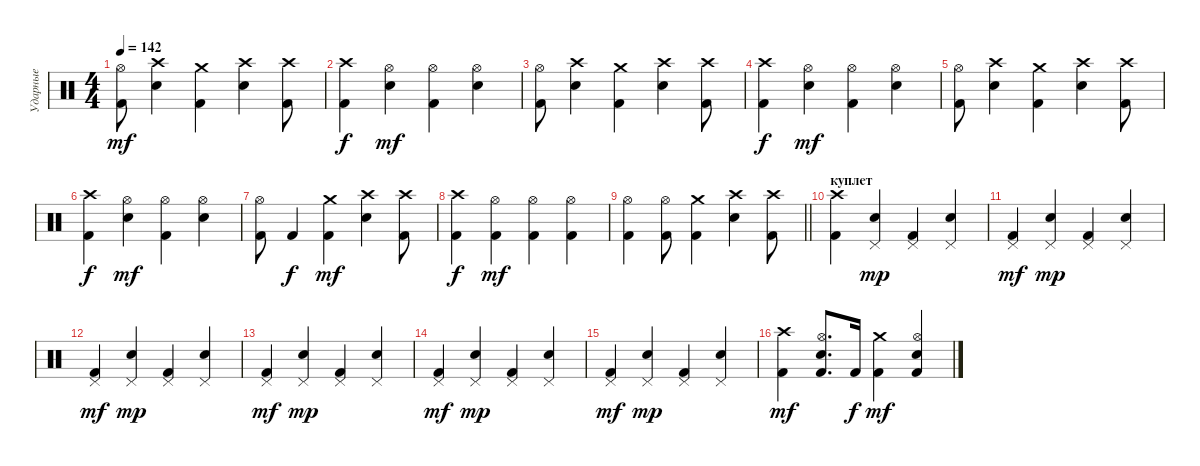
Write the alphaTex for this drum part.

\track ("Ударные" "Ударные") {instrument percussion}
\staff {score}
\articulation defaults
\ts (4 4)
\tempo 142
\clef neutral
\ks c
("Kick (hit) 2" "Hi-Hat (open)").8{dy mf} ("Electric Snare (hit)" "Crash high (hit)").4 ("Kick (hit) 2" "Crash medium (hit)").4 ("Electric Snare (hit)" "Crash high (hit)").4 ("Kick (hit) 2" "Crash high (hit)").8 |
("Kick (hit) 2" "Crash high (hit)").4{dy f} ("Electric Snare (hit)" "Hi-Hat (open)").4{dy mf} ("Kick (hit) 2" "Hi-Hat (open)").4 ("Electric Snare (hit)" "Hi-Hat (open)").4 |
("Kick (hit) 2" "Hi-Hat (open)").8 ("Electric Snare (hit)" "Crash high (hit)").4 ("Kick (hit) 2" "Crash medium (hit)").4 ("Electric Snare (hit)" "Crash high (hit)").4 ("Kick (hit) 2" "Crash high (hit)").8 |
("Kick (hit) 2" "Crash high (hit)").4{dy f} ("Electric Snare (hit)" "Hi-Hat (open)").4{dy mf} ("Kick (hit) 2" "Hi-Hat (open)").4 ("Electric Snare (hit)" "Hi-Hat (open)").4 |
("Kick (hit) 2" "Hi-Hat (open)").8 ("Electric Snare (hit)" "Crash high (hit)").4 ("Kick (hit) 2" "Crash medium (hit)").4 ("Electric Snare (hit)" "Crash high (hit)").4 ("Kick (hit) 2" "Crash high (hit)").8 |
("Kick (hit) 2" "Crash high (hit)").4{dy f} ("Electric Snare (hit)" "Hi-Hat (open)").4{dy mf} ("Kick (hit) 2" "Hi-Hat (open)").4 ("Electric Snare (hit)" "Hi-Hat (open)").4 |
("Kick (hit) 2" "Hi-Hat (open)").8 "Kick (hit) 2".4{dy f} ("Kick (hit) 2" "Crash medium (hit)").4{dy mf} ("Electric Snare (hit)" "Crash high (hit)").4 ("Kick (hit) 2" "Crash high (hit)").8 |
("Kick (hit) 2" "Crash high (hit)").4{dy f} ("Kick (hit) 2" "Hi-Hat (open)").4{dy mf} ("Kick (hit) 2" "Hi-Hat (open)").4 ("Kick (hit) 2" "Hi-Hat (open)").4 |
\barLineRight lightlight
("Kick (hit) 2" "Hi-Hat (open)").4 ("Kick (hit) 2" "Hi-Hat (open)").8 ("Kick (hit) 2" "Crash medium (hit)").4 ("Electric Snare (hit)" "Crash high (hit)").4 ("Kick (hit) 2" "Crash high (hit)").8 |
\section ("" "куплет")
("Kick (hit) 2" "Crash high (hit)").4 ("Electric Snare (hit)" "Pedal Hi-Hat (hit)").4{dy mp} ("Kick (hit) 2" "Pedal Hi-Hat (hit)").4 ("Electric Snare (hit)" "Pedal Hi-Hat (hit)").4 |
("Kick (hit) 2" "Pedal Hi-Hat (hit)").4{dy mf} ("Electric Snare (hit)" "Pedal Hi-Hat (hit)").4{dy mp} ("Kick (hit) 2" "Pedal Hi-Hat (hit)").4 ("Electric Snare (hit)" "Pedal Hi-Hat (hit)").4 |
("Kick (hit) 2" "Pedal Hi-Hat (hit)").4{dy mf} ("Electric Snare (hit)" "Pedal Hi-Hat (hit)").4{dy mp} ("Kick (hit) 2" "Pedal Hi-Hat (hit)").4 ("Electric Snare (hit)" "Pedal Hi-Hat (hit)").4 |
("Kick (hit) 2" "Pedal Hi-Hat (hit)").4{dy mf} ("Electric Snare (hit)" "Pedal Hi-Hat (hit)").4{dy mp} ("Kick (hit) 2" "Pedal Hi-Hat (hit)").4 ("Electric Snare (hit)" "Pedal Hi-Hat (hit)").4 |
("Kick (hit) 2" "Pedal Hi-Hat (hit)").4{dy mf} ("Electric Snare (hit)" "Pedal Hi-Hat (hit)").4{dy mp} ("Kick (hit) 2" "Pedal Hi-Hat (hit)").4 ("Electric Snare (hit)" "Pedal Hi-Hat (hit)").4 |
("Kick (hit) 2" "Pedal Hi-Hat (hit)").4{dy mf} ("Electric Snare (hit)" "Pedal Hi-Hat (hit)").4{dy mp} ("Kick (hit) 2" "Pedal Hi-Hat (hit)").4 ("Electric Snare (hit)" "Pedal Hi-Hat (hit)").4 |
("Kick (hit) 2" "Crash high (hit)").4{dy mf} ("Kick (hit) 2" "Electric Snare (hit)" "Hi-Hat (open)").8{d} "Kick (hit) 2".16{dy f} ("Kick (hit) 2" "Crash medium (hit)").4{dy mf} ("Kick (hit) 2" "Electric Snare (hit)" "Hi-Hat (open)").4
